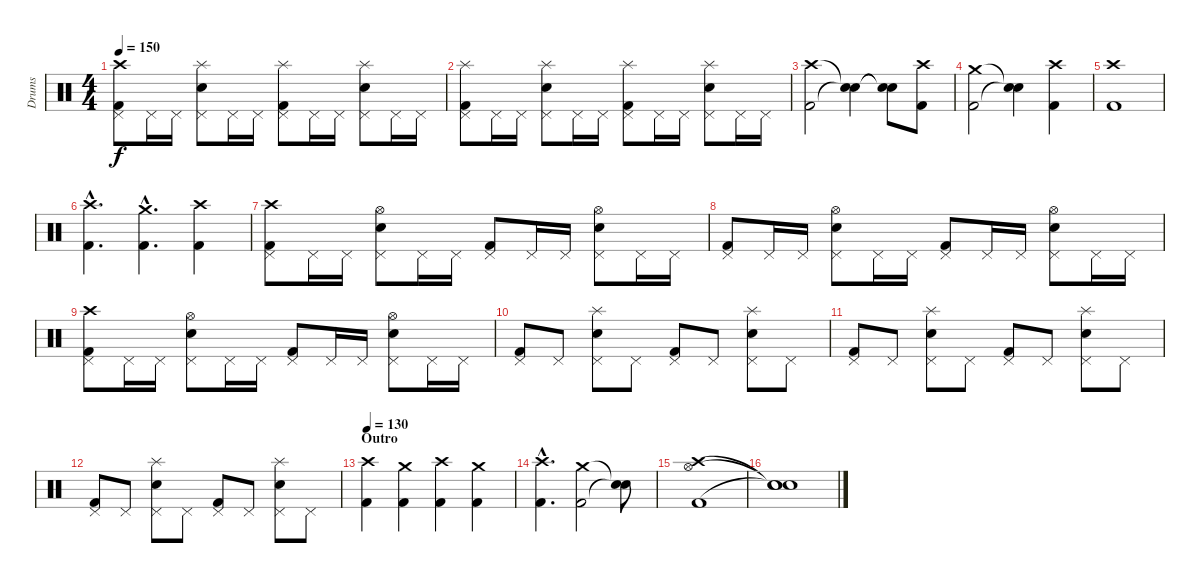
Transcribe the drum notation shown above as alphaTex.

\track ("Drums" "Drums") {instrument percussion}
\staff {score}
\articulation defaults
\ts (4 4)
\tempo 150
\clef neutral
\ks c
("Kick (hit) 2" "Pedal Hi-Hat (hit)" "Crash high (hit)").8{dy f} "Pedal Hi-Hat (hit)".16 "Pedal Hi-Hat (hit)".16 ("Snare (hit) 2" "Pedal Hi-Hat (hit)" "Splash (hit)").8 "Pedal Hi-Hat (hit)".16 "Pedal Hi-Hat (hit)".16 ("Kick (hit) 2" "Pedal Hi-Hat (hit)" "Splash (hit)").8 "Pedal Hi-Hat (hit)".16 "Pedal Hi-Hat (hit)".16 ("Snare (hit) 2" "Pedal Hi-Hat (hit)" "Splash (hit)").8 "Pedal Hi-Hat (hit)".16 "Pedal Hi-Hat (hit)".16 |
("Kick (hit) 2" "Pedal Hi-Hat (hit)" "Splash (hit)").8 "Pedal Hi-Hat (hit)".16 "Pedal Hi-Hat (hit)".16 ("Snare (hit) 2" "Pedal Hi-Hat (hit)" "Splash (hit)").8 "Pedal Hi-Hat (hit)".16 "Pedal Hi-Hat (hit)".16 ("Kick (hit) 2" "Pedal Hi-Hat (hit)" "Splash (hit)").8 "Pedal Hi-Hat (hit)".16 "Pedal Hi-Hat (hit)".16 ("Snare (hit) 2" "Pedal Hi-Hat (hit)" "Splash (hit)").8 "Pedal Hi-Hat (hit)".16 "Pedal Hi-Hat (hit)".16 |
("Kick (hit) 2" "Crash high (hit)").2 ("Snare (hit)"{t} "Snare (hit)"{t}).4 ("Snare (hit)"{t} "Snare (hit)"{t}).8 ("Kick (hit) 2" "Crash high (hit)").8 |
("Kick (hit) 2" "Crash medium (hit)").2 ("Snare (hit)"{t} "Snare (hit)"{t}).4 ("Kick (hit) 2" "Crash high (hit)").4 |
("Kick (hit) 2" "Crash high (hit)").1 |
("Kick (hit) 2"{hac} "Crash high (hit)"{hac}).4{d} ("Kick (hit) 2"{hac} "Crash medium (hit)"{hac}).4{d} ("Kick (hit) 2" "Crash high (hit)").4 |
("Kick (hit) 2" "Pedal Hi-Hat (hit)" "Crash high (hit)").8 "Pedal Hi-Hat (hit)".16 "Pedal Hi-Hat (hit)".16 ("Snare (hit) 2" "Pedal Hi-Hat (hit)" "Hi-Hat (open)").8 "Pedal Hi-Hat (hit)".16 "Pedal Hi-Hat (hit)".16 ("Kick (hit) 2" "Pedal Hi-Hat (hit)").8 "Pedal Hi-Hat (hit)".16 "Pedal Hi-Hat (hit)".16 ("Snare (hit) 2" "Pedal Hi-Hat (hit)" "Hi-Hat (open)").8 "Pedal Hi-Hat (hit)".16 "Pedal Hi-Hat (hit)".16 |
("Kick (hit) 2" "Pedal Hi-Hat (hit)").8 "Pedal Hi-Hat (hit)".16 "Pedal Hi-Hat (hit)".16 ("Snare (hit) 2" "Pedal Hi-Hat (hit)" "Hi-Hat (open)").8 "Pedal Hi-Hat (hit)".16 "Pedal Hi-Hat (hit)".16 ("Kick (hit) 2" "Pedal Hi-Hat (hit)").8 "Pedal Hi-Hat (hit)".16 "Pedal Hi-Hat (hit)".16 ("Snare (hit) 2" "Pedal Hi-Hat (hit)" "Hi-Hat (open)").8 "Pedal Hi-Hat (hit)".16 "Pedal Hi-Hat (hit)".16 |
("Kick (hit) 2" "Pedal Hi-Hat (hit)" "Crash high (hit)").8 "Pedal Hi-Hat (hit)".16 "Pedal Hi-Hat (hit)".16 ("Snare (hit) 2" "Pedal Hi-Hat (hit)" "Hi-Hat (open)").8 "Pedal Hi-Hat (hit)".16 "Pedal Hi-Hat (hit)".16 ("Kick (hit) 2" "Pedal Hi-Hat (hit)").8 "Pedal Hi-Hat (hit)".16 "Pedal Hi-Hat (hit)".16 ("Snare (hit) 2" "Pedal Hi-Hat (hit)" "Hi-Hat (open)").8 "Pedal Hi-Hat (hit)".16 "Pedal Hi-Hat (hit)".16 |
("Kick (hit) 2" "Pedal Hi-Hat (hit)").8 "Pedal Hi-Hat (hit)".8 ("Snare (hit) 2" "Pedal Hi-Hat (hit)" "Splash (hit)").8 "Pedal Hi-Hat (hit)".8 ("Kick (hit) 2" "Pedal Hi-Hat (hit)").8 "Pedal Hi-Hat (hit)".8 ("Snare (hit) 2" "Pedal Hi-Hat (hit)" "Splash (hit)").8 "Pedal Hi-Hat (hit)".8 |
("Kick (hit) 2" "Pedal Hi-Hat (hit)").8 "Pedal Hi-Hat (hit)".8 ("Snare (hit) 2" "Pedal Hi-Hat (hit)" "Splash (hit)").8 "Pedal Hi-Hat (hit)".8 ("Kick (hit) 2" "Pedal Hi-Hat (hit)").8 "Pedal Hi-Hat (hit)".8 ("Snare (hit) 2" "Pedal Hi-Hat (hit)" "Splash (hit)").8 "Pedal Hi-Hat (hit)".8 |
("Kick (hit) 2" "Pedal Hi-Hat (hit)").8 "Pedal Hi-Hat (hit)".8 ("Snare (hit) 2" "Pedal Hi-Hat (hit)" "Splash (hit)").8 "Pedal Hi-Hat (hit)".8 ("Kick (hit) 2" "Pedal Hi-Hat (hit)").8 "Pedal Hi-Hat (hit)".8 ("Snare (hit) 2" "Pedal Hi-Hat (hit)" "Splash (hit)").8 "Pedal Hi-Hat (hit)".8 |
\section ("" "Outro")
\tempo 130
("Kick (hit) 2" "Crash high (hit)").4 ("Kick (hit) 2" "Crash medium (hit)").4 ("Kick (hit) 2" "Crash high (hit)").4 ("Kick (hit) 2" "Crash medium (hit)").4 |
("Kick (hit) 2"{hac} "Crash high (hit)"{hac}).4{d} ("Kick (hit) 2" "Crash medium (hit)").2 ("Snare (hit)"{t} "Snare (hit)"{t}).8 |
("Kick (hit) 2" "Hi-Hat (open)" "Crash high (hit)").1 |
("Snare (hit)"{t} "Snare (hit)"{t} "Snare (hit)"{t}).1
